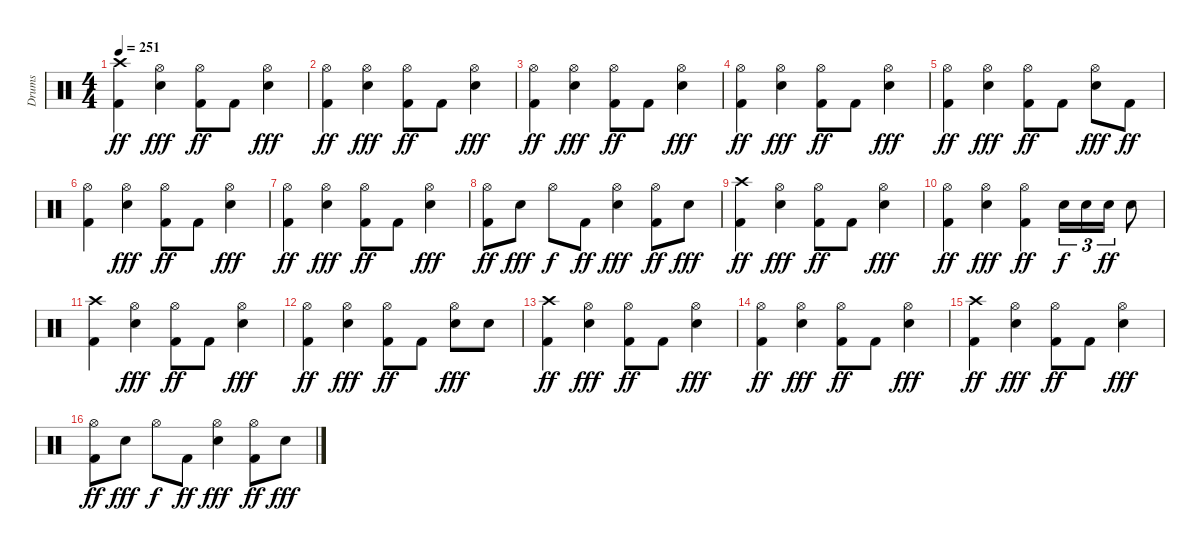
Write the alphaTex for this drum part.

\track ("Drums" "Drums") {instrument percussion}
\staff {score}
\articulation defaults
\ts (4 4)
\tempo 251
\clef neutral
\ks c
("Crash high (hit)" "Kick (hit) 2").4{dy ff} ("Hi-Hat (open)" "Electric Snare (hit)").4{dy fff} ("Hi-Hat (open)" "Kick (hit) 2").8{dy ff} "Kick (hit) 2".8 ("Hi-Hat (open)" "Electric Snare (hit)").4{dy fff} |
("Hi-Hat (open)" "Kick (hit) 2").4{dy ff} ("Hi-Hat (open)" "Electric Snare (hit)").4{dy fff} ("Hi-Hat (open)" "Kick (hit) 2").8{dy ff} "Kick (hit) 2".8 ("Hi-Hat (open)" "Electric Snare (hit)").4{dy fff} |
("Hi-Hat (open)" "Kick (hit) 2").4{dy ff} ("Hi-Hat (open)" "Electric Snare (hit)").4{dy fff} ("Hi-Hat (open)" "Kick (hit) 2").8{dy ff} "Kick (hit) 2".8 ("Hi-Hat (open)" "Electric Snare (hit)").4{dy fff} |
("Hi-Hat (open)" "Kick (hit) 2").4{dy ff} ("Hi-Hat (open)" "Electric Snare (hit)").4{dy fff} ("Hi-Hat (open)" "Kick (hit) 2").8{dy ff} "Kick (hit) 2".8 ("Hi-Hat (open)" "Electric Snare (hit)").4{dy fff} |
("Hi-Hat (open)" "Kick (hit) 2").4{dy ff} ("Hi-Hat (open)" "Electric Snare (hit)").4{dy fff} ("Hi-Hat (open)" "Kick (hit) 2").8{dy ff} "Kick (hit) 2".8 ("Hi-Hat (open)" "Electric Snare (hit)").8{dy fff} "Kick (hit) 2".8{dy ff} |
("Hi-Hat (open)" "Kick (hit) 2").4 ("Hi-Hat (open)" "Electric Snare (hit)").4{dy fff} ("Hi-Hat (open)" "Kick (hit) 2").8{dy ff} "Kick (hit) 2".8 ("Hi-Hat (open)" "Electric Snare (hit)").4{dy fff} |
("Hi-Hat (open)" "Kick (hit) 2").4{dy ff} ("Hi-Hat (open)" "Electric Snare (hit)").4{dy fff} ("Hi-Hat (open)" "Kick (hit) 2").8{dy ff} "Kick (hit) 2".8 ("Hi-Hat (open)" "Electric Snare (hit)").4{dy fff} |
("Hi-Hat (open)" "Kick (hit) 2").8{dy ff} "Electric Snare (hit)".8{dy fff} "Hi-Hat (open)".8{dy f} "Kick (hit) 2".8{dy ff} ("Hi-Hat (open)" "Electric Snare (hit)").4{dy fff} ("Hi-Hat (open)" "Kick (hit) 2").8{dy ff} "Electric Snare (hit)".8{dy fff} |
("Crash high (hit)" "Kick (hit) 2").4{dy ff} ("Hi-Hat (open)" "Electric Snare (hit)").4{dy fff} ("Hi-Hat (open)" "Kick (hit) 2").8{dy ff} "Kick (hit) 2".8 ("Hi-Hat (open)" "Electric Snare (hit)").4{dy fff} |
("Hi-Hat (open)" "Kick (hit) 2").4{dy ff} ("Hi-Hat (open)" "Electric Snare (hit)").4{dy fff} ("Hi-Hat (open)" "Kick (hit) 2").4{dy ff} "Electric Snare (hit)".16{tu (3 2) dy f} "Electric Snare (hit)".16{tu (3 2)} "Electric Snare (hit)".16{tu (3 2) dy ff} "Electric Snare (hit)".8 |
("Crash high (hit)" "Kick (hit) 2").4 ("Hi-Hat (open)" "Electric Snare (hit)").4{dy fff} ("Hi-Hat (open)" "Kick (hit) 2").8{dy ff} "Kick (hit) 2".8 ("Hi-Hat (open)" "Electric Snare (hit)").4{dy fff} |
("Hi-Hat (open)" "Kick (hit) 2").4{dy ff} ("Hi-Hat (open)" "Electric Snare (hit)").4{dy fff} ("Hi-Hat (open)" "Kick (hit) 2").8{dy ff} "Kick (hit) 2".8 ("Hi-Hat (open)" "Electric Snare (hit)").8{dy fff} "Electric Snare (hit)".8 |
("Crash high (hit)" "Kick (hit) 2").4{dy ff} ("Hi-Hat (open)" "Electric Snare (hit)").4{dy fff} ("Hi-Hat (open)" "Kick (hit) 2").8{dy ff} "Kick (hit) 2".8 ("Hi-Hat (open)" "Electric Snare (hit)").4{dy fff} |
("Hi-Hat (open)" "Kick (hit) 2").4{dy ff} ("Hi-Hat (open)" "Electric Snare (hit)").4{dy fff} ("Hi-Hat (open)" "Kick (hit) 2").8{dy ff} "Kick (hit) 2".8 ("Hi-Hat (open)" "Electric Snare (hit)").4{dy fff} |
("Crash high (hit)" "Kick (hit) 2").4{dy ff} ("Hi-Hat (open)" "Electric Snare (hit)").4{dy fff} ("Hi-Hat (open)" "Kick (hit) 2").8{dy ff} "Kick (hit) 2".8 ("Hi-Hat (open)" "Electric Snare (hit)").4{dy fff} |
("Hi-Hat (open)" "Kick (hit) 2").8{dy ff} "Electric Snare (hit)".8{dy fff} "Hi-Hat (open)".8{dy f} "Kick (hit) 2".8{dy ff} ("Hi-Hat (open)" "Electric Snare (hit)").4{dy fff} ("Hi-Hat (open)" "Kick (hit) 2").8{dy ff} "Electric Snare (hit)".8{dy fff}
